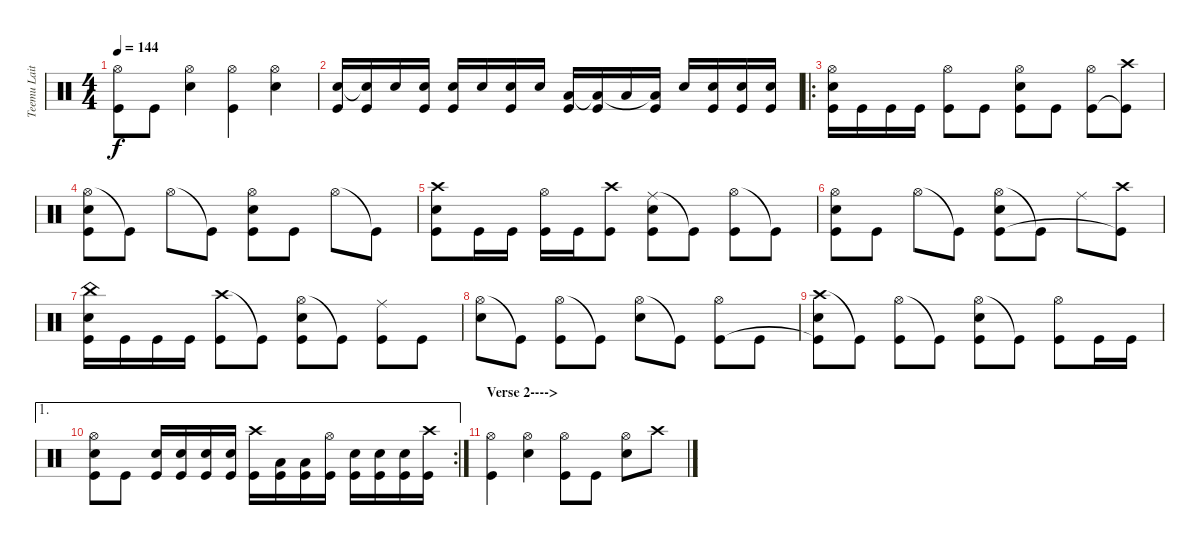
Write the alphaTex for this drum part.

\track ("Teemu Laitinen" "Teemu Lait") {instrument percussion}
\staff {score}
\articulation defaults
\ts (4 4)
\tempo 144
\clef neutral
\ks c
("Hi-Hat (open)" "Kick (hit)").8{dy f} "Kick (hit)".8 ("Hi-Hat (open)" "Electric Snare (hit)").4 ("Hi-Hat (open)" "Kick (hit)").4 ("Hi-Hat (open)" "Electric Snare (hit)").4 |
("Kick (hit)" "Electric Snare (hit)").16 ("Kick (hit)" "Electric Snare (hit)"{t}).16 "Electric Snare (hit)".16 ("Kick (hit)" "Electric Snare (hit)").16 ("Kick (hit)" "Electric Snare (hit)").16 "Electric Snare (hit)".16 ("Kick (hit)" "Electric Snare (hit)").16 "Electric Snare (hit)".16 ("Kick (hit)" "Low Floor Tom (hit)").16 ("Kick (hit)" "Low Floor Tom (hit)"{t}).16 "Low Floor Tom (hit)".16 ("Kick (hit)" "Low Floor Tom (hit)"{t}).16 "Electric Snare (hit)".16 ("Kick (hit)" "Electric Snare (hit)").16 ("Kick (hit)" "Electric Snare (hit)").16 ("Kick (hit)" "Electric Snare (hit)").16 |
\ro
("Hi-Hat (open)" "Kick (hit)" "Electric Snare (hit)").16 "Kick (hit)".16 "Kick (hit)".16 "Kick (hit)".16 ("Hi-Hat (open)" "Kick (hit)").8 "Kick (hit)".8 ("Hi-Hat (open)" "Kick (hit)" "Electric Snare (hit)").8 "Kick (hit)".8 ("Hi-Hat (open)" "Kick (hit)").8 ("Crash high (hit)" "Kick (hit)"{t}).8 |
("Hi-Hat (open)" "Kick (hit)" "Electric Snare (hit)").8 "Kick (hit)"{t}.8 "Hi-Hat (open)".8 "Kick (hit)"{t}.8 ("Hi-Hat (open)" "Kick (hit)" "Electric Snare (hit)").8 "Kick (hit)".8 "Hi-Hat (open)".8 "Kick (hit)"{t}.8 |
("Crash high (hit)" "Kick (hit)" "Electric Snare (hit)").8 "Kick (hit)".16 "Kick (hit)".16 ("Hi-Hat (open)" "Kick (hit)").16 "Kick (hit)".16 ("Crash high (hit)" "Kick (hit)").8 ("Ride (middle)" "Kick (hit)" "Electric Snare (hit)").8 "Kick (hit)"{t}.8 ("Hi-Hat (open)" "Kick (hit)").8 "Kick (hit)"{t}.8 |
("Hi-Hat (open)" "Kick (hit)" "Electric Snare (hit)").8 "Kick (hit)".8 "Hi-Hat (open)".8 "Kick (hit)"{t}.8 ("Hi-Hat (open)" "Kick (hit)" "Electric Snare (hit)").8 "Kick (hit)"{t}.8 "Ride (middle)".8 ("Crash high (hit)" "Kick (hit)"{t}).8 |
("China (hit)" "Kick (hit)" "Electric Snare (hit)").16 "Kick (hit)".16 "Kick (hit)".16 "Kick (hit)".16 ("Crash high (hit)" "Kick (hit)").8 "Kick (hit)"{t}.8 ("Hi-Hat (open)" "Kick (hit)" "Electric Snare (hit)").8 "Kick (hit)"{t}.8 ("Ride (middle)" "Kick (hit)").8 "Kick (hit)".8 |
("Hi-Hat (open)" "Electric Snare (hit)").8 "Kick (hit)"{t}.8 ("Hi-Hat (open)" "Kick (hit)").8 "Kick (hit)"{t}.8 ("Hi-Hat (open)" "Electric Snare (hit)").8 "Kick (hit)"{t}.8 ("Hi-Hat (open)" "Kick (hit)").8 "Kick (hit)".8 |
("Crash high (hit)" "Kick (hit)"{t} "Electric Snare (hit)").8 "Kick (hit)"{t}.8 ("Hi-Hat (open)" "Kick (hit)").8 "Kick (hit)"{t}.8 ("Hi-Hat (open)" "Kick (hit)" "Electric Snare (hit)").8 "Kick (hit)"{t}.8 ("Hi-Hat (open)" "Kick (hit)").8 "Kick (hit)".16 "Kick (hit)".16 |
\ae 1
\rc 2
("Hi-Hat (open)" "Kick (hit)" "Electric Snare (hit)").8 "Kick (hit)".8 ("Kick (hit)" "Electric Snare (hit)").16 ("Kick (hit)" "Electric Snare (hit)").16 ("Kick (hit)" "Electric Snare (hit)").16 ("Kick (hit)" "Electric Snare (hit)").16 ("Crash high (hit)" "Kick (hit)").16 ("Kick (hit)" "Low Tom (hit)").16 ("Kick (hit)" "Low Floor Tom (hit)").16 ("Hi-Hat (open)" "Kick (hit)").16 ("Kick (hit)" "Electric Snare (hit)").16 ("Kick (hit)" "Electric Snare (hit)").16 ("Kick (hit)" "Electric Snare (hit)").16 ("Crash high (hit)" "Kick (hit)").16 |
\section ("" "Verse 2---->")
("Hi-Hat (open)" "Kick (hit)").4 ("Hi-Hat (open)" "Electric Snare (hit)").4 ("Hi-Hat (open)" "Kick (hit)").8 "Kick (hit)".8 ("Hi-Hat (open)" "Electric Snare (hit)").8 "Crash high (hit)".8
